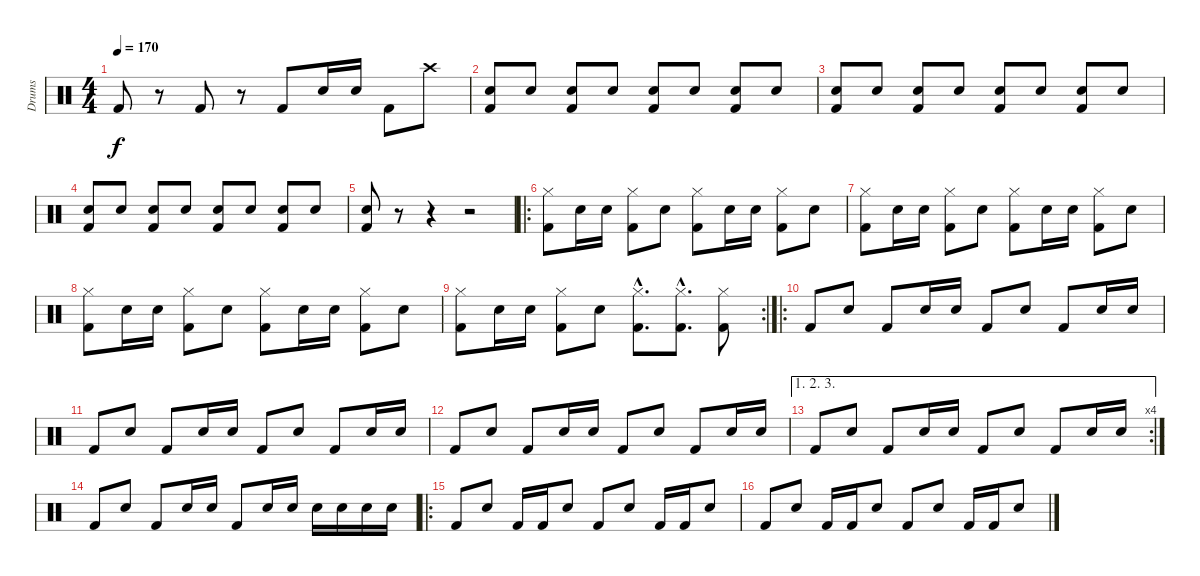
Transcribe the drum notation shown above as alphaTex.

\track ("Drums" "Drums") {instrument percussion}
\staff {score}
\articulation defaults
\ts (4 4)
\tempo 170
\clef neutral
\ks c "Kick (hit) 2".8{dy f}
r.8 "Kick (hit) 2".8 r.8 "Kick (hit) 2".8 "Electric Snare (hit)".16 "Electric Snare (hit)".16 "Kick (hit) 2".8 "Crash high (hit)".8 |
("Electric Snare (hit)" "Kick (hit) 2").8 "Electric Snare (hit)".8 ("Electric Snare (hit)" "Kick (hit) 2").8 "Electric Snare (hit)".8 ("Electric Snare (hit)" "Kick (hit) 2").8 "Electric Snare (hit)".8 ("Electric Snare (hit)" "Kick (hit) 2").8 "Electric Snare (hit)".8 |
("Electric Snare (hit)" "Kick (hit) 2").8 "Electric Snare (hit)".8 ("Electric Snare (hit)" "Kick (hit) 2").8 "Electric Snare (hit)".8 ("Electric Snare (hit)" "Kick (hit) 2").8 "Electric Snare (hit)".8 ("Electric Snare (hit)" "Kick (hit) 2").8 "Electric Snare (hit)".8 |
("Electric Snare (hit)" "Kick (hit) 2").8 "Electric Snare (hit)".8 ("Electric Snare (hit)" "Kick (hit) 2").8 "Electric Snare (hit)".8 ("Electric Snare (hit)" "Kick (hit) 2").8 "Electric Snare (hit)".8 ("Electric Snare (hit)" "Kick (hit) 2").8 "Electric Snare (hit)".8 |
("Electric Snare (hit)" "Kick (hit) 2").8 r.8 r.4 r.2 |
\ro
("Hi-Hat (closed)" "Kick (hit) 2").8 "Electric Snare (hit)".16 "Electric Snare (hit)".16 ("Hi-Hat (closed)" "Kick (hit) 2").8 "Electric Snare (hit)".8 ("Hi-Hat (closed)" "Kick (hit) 2").8 "Electric Snare (hit)".16 "Electric Snare (hit)".16 ("Hi-Hat (closed)" "Kick (hit) 2").8 "Electric Snare (hit)".8 |
("Hi-Hat (closed)" "Kick (hit) 2").8 "Electric Snare (hit)".16 "Electric Snare (hit)".16 ("Hi-Hat (closed)" "Kick (hit) 2").8 "Electric Snare (hit)".8 ("Hi-Hat (closed)" "Kick (hit) 2").8 "Electric Snare (hit)".16 "Electric Snare (hit)".16 ("Hi-Hat (closed)" "Kick (hit) 2").8 "Electric Snare (hit)".8 |
("Hi-Hat (closed)" "Kick (hit) 2").8 "Electric Snare (hit)".16 "Electric Snare (hit)".16 ("Hi-Hat (closed)" "Kick (hit) 2").8 "Electric Snare (hit)".8 ("Hi-Hat (closed)" "Kick (hit) 2").8 "Electric Snare (hit)".16 "Electric Snare (hit)".16 ("Hi-Hat (closed)" "Kick (hit) 2").8 "Electric Snare (hit)".8 |
\rc 2
("Hi-Hat (closed)" "Kick (hit) 2").8 "Electric Snare (hit)".16 "Electric Snare (hit)".16 ("Hi-Hat (closed)" "Kick (hit) 2").8 "Electric Snare (hit)".8 ("Hi-Hat (closed)"{hac} "Kick (hit) 2"{hac}).8{d} ("Hi-Hat (closed)"{hac} "Kick (hit) 2"{hac}).8{d} ("Hi-Hat (closed)" "Kick (hit) 2").8 |
\ro "Kick (hit) 2".8 "Electric Snare (hit)".8 "Kick (hit) 2".8 "Electric Snare (hit)".16 "Electric Snare (hit)".16 "Kick (hit) 2".8 "Electric Snare (hit)".8 "Kick (hit) 2".8 "Electric Snare (hit)".16 "Electric Snare (hit)".16
|
"Kick (hit) 2".8 "Electric Snare (hit)".8 "Kick (hit) 2".8 "Electric Snare (hit)".16 "Electric Snare (hit)".16 "Kick (hit) 2".8 "Electric Snare (hit)".8 "Kick (hit) 2".8 "Electric Snare (hit)".16 "Electric Snare (hit)".16 |
"Kick (hit) 2".8 "Electric Snare (hit)".8 "Kick (hit) 2".8 "Electric Snare (hit)".16 "Electric Snare (hit)".16 "Kick (hit) 2".8 "Electric Snare (hit)".8 "Kick (hit) 2".8 "Electric Snare (hit)".16 "Electric Snare (hit)".16 |
\ae (1 2 3)
\rc 4 "Kick (hit) 2".8 "Electric Snare (hit)".8 "Kick (hit) 2".8 "Electric Snare (hit)".16 "Electric Snare (hit)".16 "Kick (hit) 2".8 "Electric Snare (hit)".8 "Kick (hit) 2".8 "Electric Snare (hit)".16 "Electric Snare (hit)".16
|
"Kick (hit) 2".8 "Electric Snare (hit)".8 "Kick (hit) 2".8 "Electric Snare (hit)".16 "Electric Snare (hit)".16 "Kick (hit) 2".8 "Electric Snare (hit)".16 "Electric Snare (hit)".16 "Electric Snare (hit)".16 "Electric Snare (hit)".16 "Electric Snare (hit)".16 "Electric Snare (hit)".16 |
\ro "Kick (hit) 2".8 "Electric Snare (hit)".8 "Kick (hit) 2".16 "Kick (hit) 2".16 "Electric Snare (hit)".8 "Kick (hit) 2".8 "Electric Snare (hit)".8 "Kick (hit) 2".16 "Kick (hit) 2".16 "Electric Snare (hit)".8
|
"Kick (hit) 2".8 "Electric Snare (hit)".8 "Kick (hit) 2".16 "Kick (hit) 2".16 "Electric Snare (hit)".8 "Kick (hit) 2".8 "Electric Snare (hit)".8 "Kick (hit) 2".16 "Kick (hit) 2".16 "Electric Snare (hit)".8
